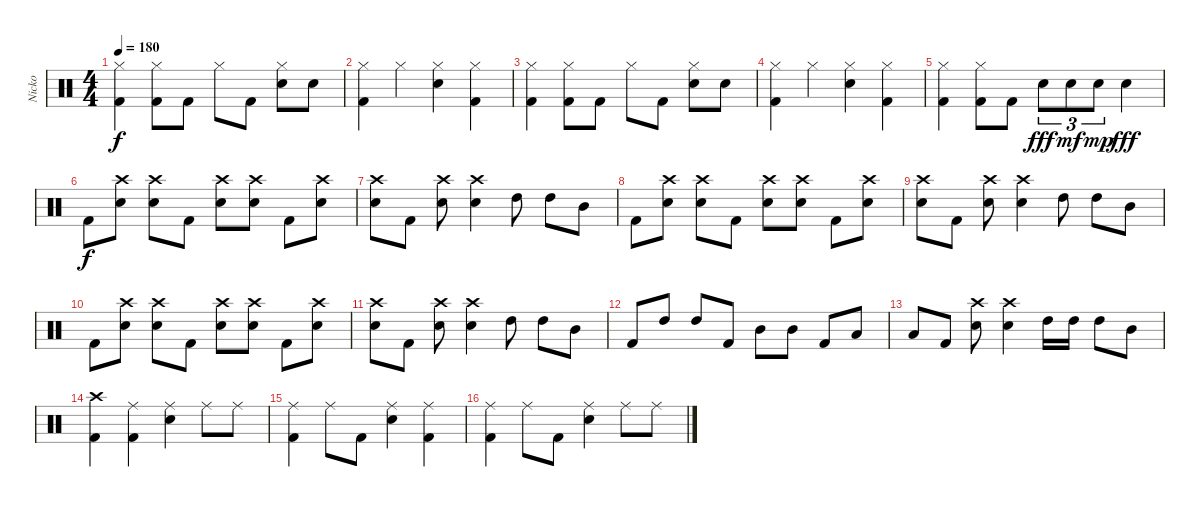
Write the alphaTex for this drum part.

\track ("Nicko" "Nicko") {instrument percussion}
\staff {score}
\articulation defaults
\ts (4 4)
\tempo 180
\clef neutral
\ks c
("Hi-Hat (closed)" "Kick (hit) 2").4{dy f} ("Hi-Hat (closed)" "Kick (hit) 2").8 "Kick (hit) 2".8 "Hi-Hat (closed)".8 "Kick (hit) 2".8 ("Hi-Hat (closed)" "Snare (hit) 2").8 "Snare (hit) 2".8 |
("Hi-Hat (closed)" "Kick (hit) 2").4 "Hi-Hat (closed)".4 ("Hi-Hat (closed)" "Snare (hit) 2").4 ("Hi-Hat (closed)" "Kick (hit) 2").4 |
("Hi-Hat (closed)" "Kick (hit) 2").4 ("Hi-Hat (closed)" "Kick (hit) 2").8 "Kick (hit) 2".8 "Hi-Hat (closed)".8 "Kick (hit) 2".8 ("Hi-Hat (closed)" "Snare (hit) 2").8 "Snare (hit) 2".8 |
("Hi-Hat (closed)" "Kick (hit) 2").4 "Hi-Hat (closed)".4 ("Hi-Hat (closed)" "Snare (hit) 2").4 ("Hi-Hat (closed)" "Kick (hit) 2").4 |
("Hi-Hat (closed)" "Kick (hit) 2").4 ("Hi-Hat (closed)" "Kick (hit) 2").8 "Kick (hit) 2".8 "Snare (hit) 2".8{tu (3 2) dy fff} "Snare (hit) 2".8{tu (3 2) dy mf} "Snare (hit) 2".8{tu (3 2) dy mp} "Snare (hit) 2".4{dy fff} |
"Kick (hit) 2".8{dy f} ("Crash high (hit)" "Snare (hit) 2").8 ("Crash high (hit)" "Snare (hit) 2").8 "Kick (hit) 2".8 ("Crash high (hit)" "Snare (hit) 2").8 ("Crash high (hit)" "Snare (hit) 2").8 "Kick (hit) 2".8 ("Crash high (hit)" "Snare (hit) 2").8 |
("Crash high (hit)" "Snare (hit) 2").8 "Kick (hit) 2".8 ("Crash high (hit)" "Snare (hit) 2").8 ("Crash high (hit)" "Snare (hit) 2").4 "High Tom (hit)".8 "High Tom (hit)".8 "Mid Tom (hit)".8 |
"Kick (hit) 2".8 ("Crash high (hit)" "Snare (hit) 2").8 ("Crash high (hit)" "Snare (hit) 2").8 "Kick (hit) 2".8 ("Crash high (hit)" "Snare (hit) 2").8 ("Crash high (hit)" "Snare (hit) 2").8 "Kick (hit) 2".8 ("Crash high (hit)" "Snare (hit) 2").8 |
("Crash high (hit)" "Snare (hit) 2").8 "Kick (hit) 2".8 ("Crash high (hit)" "Snare (hit) 2").8 ("Crash high (hit)" "Snare (hit) 2").4 "High Tom (hit)".8 "High Tom (hit)".8 "Mid Tom (hit)".8 |
"Kick (hit) 2".8 ("Crash high (hit)" "Snare (hit) 2").8 ("Crash high (hit)" "Snare (hit) 2").8 "Kick (hit) 2".8 ("Crash high (hit)" "Snare (hit) 2").8 ("Crash high (hit)" "Snare (hit) 2").8 "Kick (hit) 2".8 ("Crash high (hit)" "Snare (hit) 2").8 |
("Crash high (hit)" "Snare (hit) 2").8 "Kick (hit) 2".8 ("Crash high (hit)" "Snare (hit) 2").8 ("Crash high (hit)" "Snare (hit) 2").4 "High Tom (hit)".8 "High Tom (hit)".8 "Mid Tom (hit)".8 |
"Kick (hit) 2".8 "High Tom (hit)".8 "High Tom (hit)".8 "Kick (hit) 2".8 "Mid Tom (hit)".8 "Mid Tom (hit)".8 "Kick (hit) 2".8 "Low Tom (hit)".8 |
"Low Tom (hit)".8 "Kick (hit) 2".8 ("Crash high (hit)" "Snare (hit) 2").8 ("Crash high (hit)" "Snare (hit) 2").4 "High Tom (hit)".16 "High Tom (hit)".16 "High Tom (hit)".8 "Mid Tom (hit)".8 |
("Crash high (hit)" "Kick (hit) 2").4 ("Ride (middle)" "Kick (hit) 2").4 ("Ride (middle)" "Snare (hit) 2").4 "Ride (middle)".8 "Ride (middle)".8 |
("Ride (middle)" "Kick (hit) 2").4 "Ride (middle)".8 "Kick (hit) 2".8 ("Ride (middle)" "Snare (hit) 2").4 ("Ride (middle)" "Kick (hit) 2").4 |
("Ride (middle)" "Kick (hit) 2").4 "Ride (middle)".8 "Kick (hit) 2".8 ("Ride (middle)" "Snare (hit) 2").4 "Ride (middle)".8 "Ride (middle)".8
